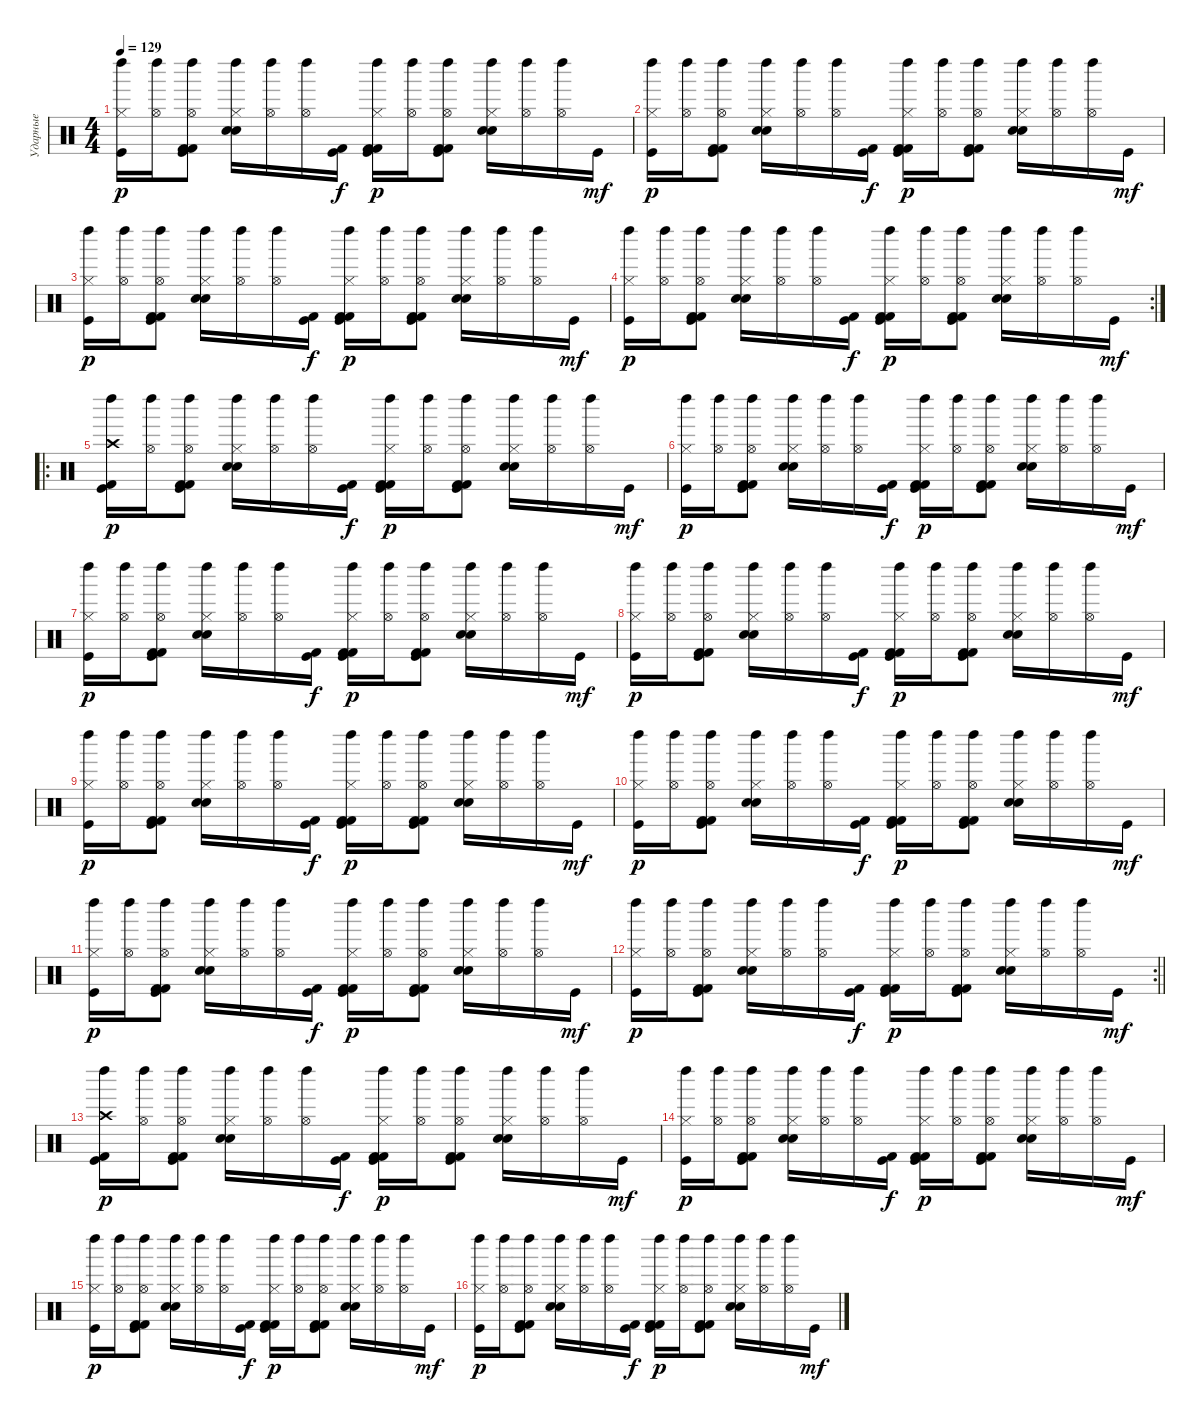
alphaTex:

\track ("Ударные" "Ударные") {instrument percussion}
\staff {score}
\articulation defaults
\ts (4 4)
\tempo 129
\clef neutral
\ks c
("Kick (hit)" "Hi-Hat (closed)" "Left Maraca (hit)").16{dy p} ("Left Maraca (hit)" "Hi-Hat (open)").16 ("Kick (hit)" "Kick (hit) 2" "Kick (hit) 2" "Left Maraca (hit)" "Hi-Hat (open)").8 ("Snare (hit) 2" "Electric Snare (hit)" "Hi-Hat (closed)" "Left Maraca (hit)").16 ("Left Maraca (hit)" "Hi-Hat (open)").16 ("Left Maraca (hit)" "Hi-Hat (open)").16 ("Kick (hit)" "Kick (hit) 2").16{dy f} ("Kick (hit)" "Kick (hit) 2" "Kick (hit) 2" "Hi-Hat (closed)" "Left Maraca (hit)").16{dy p} ("Left Maraca (hit)" "Hi-Hat (open)").16 ("Kick (hit)" "Kick (hit) 2" "Kick (hit) 2" "Left Maraca (hit)" "Hi-Hat (open)").8 ("Snare (hit) 2" "Electric Snare (hit)" "Hi-Hat (closed)" "Left Maraca (hit)").16 ("Left Maraca (hit)" "Hi-Hat (open)").16 ("Left Maraca (hit)" "Hi-Hat (open)").16 "Kick (hit)".16{dy mf} |
("Kick (hit)" "Hi-Hat (closed)" "Left Maraca (hit)").16{dy p} ("Left Maraca (hit)" "Hi-Hat (open)").16 ("Kick (hit)" "Kick (hit) 2" "Kick (hit) 2" "Left Maraca (hit)" "Hi-Hat (open)").8 ("Snare (hit) 2" "Electric Snare (hit)" "Hi-Hat (closed)" "Left Maraca (hit)").16 ("Left Maraca (hit)" "Hi-Hat (open)").16 ("Left Maraca (hit)" "Hi-Hat (open)").16 ("Kick (hit)" "Kick (hit) 2").16{dy f} ("Kick (hit)" "Kick (hit) 2" "Kick (hit) 2" "Hi-Hat (closed)" "Left Maraca (hit)").16{dy p} ("Left Maraca (hit)" "Hi-Hat (open)").16 ("Kick (hit)" "Kick (hit) 2" "Kick (hit) 2" "Left Maraca (hit)" "Hi-Hat (open)").8 ("Snare (hit) 2" "Electric Snare (hit)" "Hi-Hat (closed)" "Left Maraca (hit)").16 ("Left Maraca (hit)" "Hi-Hat (open)").16 ("Left Maraca (hit)" "Hi-Hat (open)").16 "Kick (hit)".16{dy mf} |
("Kick (hit)" "Hi-Hat (closed)" "Left Maraca (hit)").16{dy p} ("Left Maraca (hit)" "Hi-Hat (open)").16 ("Kick (hit)" "Kick (hit) 2" "Kick (hit) 2" "Left Maraca (hit)" "Hi-Hat (open)").8 ("Snare (hit) 2" "Electric Snare (hit)" "Hi-Hat (closed)" "Left Maraca (hit)").16 ("Left Maraca (hit)" "Hi-Hat (open)").16 ("Left Maraca (hit)" "Hi-Hat (open)").16 ("Kick (hit)" "Kick (hit) 2").16{dy f} ("Kick (hit)" "Kick (hit) 2" "Kick (hit) 2" "Hi-Hat (closed)" "Left Maraca (hit)").16{dy p} ("Left Maraca (hit)" "Hi-Hat (open)").16 ("Kick (hit)" "Kick (hit) 2" "Kick (hit) 2" "Left Maraca (hit)" "Hi-Hat (open)").8 ("Snare (hit) 2" "Electric Snare (hit)" "Hi-Hat (closed)" "Left Maraca (hit)").16 ("Left Maraca (hit)" "Hi-Hat (open)").16 ("Left Maraca (hit)" "Hi-Hat (open)").16 "Kick (hit)".16{dy mf} |
\rc 2
("Kick (hit)" "Hi-Hat (closed)" "Left Maraca (hit)").16{dy p} ("Left Maraca (hit)" "Hi-Hat (open)").16 ("Kick (hit)" "Kick (hit) 2" "Kick (hit) 2" "Left Maraca (hit)" "Hi-Hat (open)").8 ("Snare (hit) 2" "Electric Snare (hit)" "Hi-Hat (closed)" "Left Maraca (hit)").16 ("Left Maraca (hit)" "Hi-Hat (open)").16 ("Left Maraca (hit)" "Hi-Hat (open)").16 ("Kick (hit)" "Kick (hit) 2").16{dy f} ("Kick (hit)" "Kick (hit) 2" "Kick (hit) 2" "Hi-Hat (closed)" "Left Maraca (hit)").16{dy p} ("Left Maraca (hit)" "Hi-Hat (open)").16 ("Kick (hit)" "Kick (hit) 2" "Kick (hit) 2" "Left Maraca (hit)" "Hi-Hat (open)").8 ("Snare (hit) 2" "Electric Snare (hit)" "Hi-Hat (closed)" "Left Maraca (hit)").16 ("Left Maraca (hit)" "Hi-Hat (open)").16 ("Left Maraca (hit)" "Hi-Hat (open)").16 "Kick (hit)".16{dy mf} |
\ro
("Kick (hit)" "Kick (hit) 2" "Crash high (hit)" "Left Maraca (hit)").16{dy p} ("Left Maraca (hit)" "Hi-Hat (open)").16 ("Kick (hit)" "Kick (hit) 2" "Kick (hit) 2" "Left Maraca (hit)" "Hi-Hat (open)").8 ("Snare (hit) 2" "Electric Snare (hit)" "Hi-Hat (closed)" "Left Maraca (hit)").16 ("Left Maraca (hit)" "Hi-Hat (open)").16 ("Left Maraca (hit)" "Hi-Hat (open)").16 ("Kick (hit)" "Kick (hit) 2").16{dy f} ("Kick (hit)" "Kick (hit) 2" "Kick (hit) 2" "Hi-Hat (closed)" "Left Maraca (hit)").16{dy p} ("Left Maraca (hit)" "Hi-Hat (open)").16 ("Kick (hit)" "Kick (hit) 2" "Kick (hit) 2" "Left Maraca (hit)" "Hi-Hat (open)").8 ("Snare (hit) 2" "Electric Snare (hit)" "Hi-Hat (closed)" "Left Maraca (hit)").16 ("Left Maraca (hit)" "Hi-Hat (open)").16 ("Left Maraca (hit)" "Hi-Hat (open)").16 "Kick (hit)".16{dy mf} |
("Kick (hit)" "Hi-Hat (closed)" "Left Maraca (hit)").16{dy p} ("Left Maraca (hit)" "Hi-Hat (open)").16 ("Kick (hit)" "Kick (hit) 2" "Kick (hit) 2" "Left Maraca (hit)" "Hi-Hat (open)").8 ("Snare (hit) 2" "Electric Snare (hit)" "Hi-Hat (closed)" "Left Maraca (hit)").16 ("Left Maraca (hit)" "Hi-Hat (open)").16 ("Left Maraca (hit)" "Hi-Hat (open)").16 ("Kick (hit)" "Kick (hit) 2").16{dy f} ("Kick (hit)" "Kick (hit) 2" "Kick (hit) 2" "Hi-Hat (closed)" "Left Maraca (hit)").16{dy p} ("Left Maraca (hit)" "Hi-Hat (open)").16 ("Kick (hit)" "Kick (hit) 2" "Kick (hit) 2" "Left Maraca (hit)" "Hi-Hat (open)").8 ("Snare (hit) 2" "Electric Snare (hit)" "Hi-Hat (closed)" "Left Maraca (hit)").16 ("Left Maraca (hit)" "Hi-Hat (open)").16 ("Left Maraca (hit)" "Hi-Hat (open)").16 "Kick (hit)".16{dy mf} |
("Kick (hit)" "Hi-Hat (closed)" "Left Maraca (hit)").16{dy p} ("Left Maraca (hit)" "Hi-Hat (open)").16 ("Kick (hit)" "Kick (hit) 2" "Kick (hit) 2" "Left Maraca (hit)" "Hi-Hat (open)").8 ("Snare (hit) 2" "Electric Snare (hit)" "Hi-Hat (closed)" "Left Maraca (hit)").16 ("Left Maraca (hit)" "Hi-Hat (open)").16 ("Left Maraca (hit)" "Hi-Hat (open)").16 ("Kick (hit)" "Kick (hit) 2").16{dy f} ("Kick (hit)" "Kick (hit) 2" "Kick (hit) 2" "Hi-Hat (closed)" "Left Maraca (hit)").16{dy p} ("Left Maraca (hit)" "Hi-Hat (open)").16 ("Kick (hit)" "Kick (hit) 2" "Kick (hit) 2" "Left Maraca (hit)" "Hi-Hat (open)").8 ("Snare (hit) 2" "Electric Snare (hit)" "Hi-Hat (closed)" "Left Maraca (hit)").16 ("Left Maraca (hit)" "Hi-Hat (open)").16 ("Left Maraca (hit)" "Hi-Hat (open)").16 "Kick (hit)".16{dy mf} |
("Kick (hit)" "Hi-Hat (closed)" "Left Maraca (hit)").16{dy p} ("Left Maraca (hit)" "Hi-Hat (open)").16 ("Kick (hit)" "Kick (hit) 2" "Kick (hit) 2" "Left Maraca (hit)" "Hi-Hat (open)").8 ("Snare (hit) 2" "Electric Snare (hit)" "Hi-Hat (closed)" "Left Maraca (hit)").16 ("Left Maraca (hit)" "Hi-Hat (open)").16 ("Left Maraca (hit)" "Hi-Hat (open)").16 ("Kick (hit)" "Kick (hit) 2").16{dy f} ("Kick (hit)" "Kick (hit) 2" "Kick (hit) 2" "Hi-Hat (closed)" "Left Maraca (hit)").16{dy p} ("Left Maraca (hit)" "Hi-Hat (open)").16 ("Kick (hit)" "Kick (hit) 2" "Kick (hit) 2" "Left Maraca (hit)" "Hi-Hat (open)").8 ("Snare (hit) 2" "Electric Snare (hit)" "Hi-Hat (closed)" "Left Maraca (hit)").16 ("Left Maraca (hit)" "Hi-Hat (open)").16 ("Left Maraca (hit)" "Hi-Hat (open)").16 "Kick (hit)".16{dy mf} |
("Kick (hit)" "Hi-Hat (closed)" "Left Maraca (hit)").16{dy p} ("Left Maraca (hit)" "Hi-Hat (open)").16 ("Kick (hit)" "Kick (hit) 2" "Kick (hit) 2" "Left Maraca (hit)" "Hi-Hat (open)").8 ("Snare (hit) 2" "Electric Snare (hit)" "Hi-Hat (closed)" "Left Maraca (hit)").16 ("Left Maraca (hit)" "Hi-Hat (open)").16 ("Left Maraca (hit)" "Hi-Hat (open)").16 ("Kick (hit)" "Kick (hit) 2").16{dy f} ("Kick (hit)" "Kick (hit) 2" "Kick (hit) 2" "Hi-Hat (closed)" "Left Maraca (hit)").16{dy p} ("Left Maraca (hit)" "Hi-Hat (open)").16 ("Kick (hit)" "Kick (hit) 2" "Kick (hit) 2" "Left Maraca (hit)" "Hi-Hat (open)").8 ("Snare (hit) 2" "Electric Snare (hit)" "Hi-Hat (closed)" "Left Maraca (hit)").16 ("Left Maraca (hit)" "Hi-Hat (open)").16 ("Left Maraca (hit)" "Hi-Hat (open)").16 "Kick (hit)".16{dy mf} |
("Kick (hit)" "Hi-Hat (closed)" "Left Maraca (hit)").16{dy p} ("Left Maraca (hit)" "Hi-Hat (open)").16 ("Kick (hit)" "Kick (hit) 2" "Kick (hit) 2" "Left Maraca (hit)" "Hi-Hat (open)").8 ("Snare (hit) 2" "Electric Snare (hit)" "Hi-Hat (closed)" "Left Maraca (hit)").16 ("Left Maraca (hit)" "Hi-Hat (open)").16 ("Left Maraca (hit)" "Hi-Hat (open)").16 ("Kick (hit)" "Kick (hit) 2").16{dy f} ("Kick (hit)" "Kick (hit) 2" "Kick (hit) 2" "Hi-Hat (closed)" "Left Maraca (hit)").16{dy p} ("Left Maraca (hit)" "Hi-Hat (open)").16 ("Kick (hit)" "Kick (hit) 2" "Kick (hit) 2" "Left Maraca (hit)" "Hi-Hat (open)").8 ("Snare (hit) 2" "Electric Snare (hit)" "Hi-Hat (closed)" "Left Maraca (hit)").16 ("Left Maraca (hit)" "Hi-Hat (open)").16 ("Left Maraca (hit)" "Hi-Hat (open)").16 "Kick (hit)".16{dy mf} |
("Kick (hit)" "Hi-Hat (closed)" "Left Maraca (hit)").16{dy p} ("Left Maraca (hit)" "Hi-Hat (open)").16 ("Kick (hit)" "Kick (hit) 2" "Kick (hit) 2" "Left Maraca (hit)" "Hi-Hat (open)").8 ("Snare (hit) 2" "Electric Snare (hit)" "Hi-Hat (closed)" "Left Maraca (hit)").16 ("Left Maraca (hit)" "Hi-Hat (open)").16 ("Left Maraca (hit)" "Hi-Hat (open)").16 ("Kick (hit)" "Kick (hit) 2").16{dy f} ("Kick (hit)" "Kick (hit) 2" "Kick (hit) 2" "Hi-Hat (closed)" "Left Maraca (hit)").16{dy p} ("Left Maraca (hit)" "Hi-Hat (open)").16 ("Kick (hit)" "Kick (hit) 2" "Kick (hit) 2" "Left Maraca (hit)" "Hi-Hat (open)").8 ("Snare (hit) 2" "Electric Snare (hit)" "Hi-Hat (closed)" "Left Maraca (hit)").16 ("Left Maraca (hit)" "Hi-Hat (open)").16 ("Left Maraca (hit)" "Hi-Hat (open)").16 "Kick (hit)".16{dy mf} |
\rc 2
\barLineRight lightlight
("Kick (hit)" "Hi-Hat (closed)" "Left Maraca (hit)").16{dy p} ("Left Maraca (hit)" "Hi-Hat (open)").16 ("Kick (hit)" "Kick (hit) 2" "Kick (hit) 2" "Left Maraca (hit)" "Hi-Hat (open)").8 ("Snare (hit) 2" "Electric Snare (hit)" "Hi-Hat (closed)" "Left Maraca (hit)").16 ("Left Maraca (hit)" "Hi-Hat (open)").16 ("Left Maraca (hit)" "Hi-Hat (open)").16 ("Kick (hit)" "Kick (hit) 2").16{dy f} ("Kick (hit)" "Kick (hit) 2" "Kick (hit) 2" "Hi-Hat (closed)" "Left Maraca (hit)").16{dy p} ("Left Maraca (hit)" "Hi-Hat (open)").16 ("Kick (hit)" "Kick (hit) 2" "Kick (hit) 2" "Left Maraca (hit)" "Hi-Hat (open)").8 ("Snare (hit) 2" "Electric Snare (hit)" "Hi-Hat (closed)" "Left Maraca (hit)").16 ("Left Maraca (hit)" "Hi-Hat (open)").16 ("Left Maraca (hit)" "Hi-Hat (open)").16 "Kick (hit)".16{dy mf} |
("Kick (hit)" "Kick (hit) 2" "Crash high (hit)" "Left Maraca (hit)").16{dy p} ("Left Maraca (hit)" "Hi-Hat (open)").16 ("Kick (hit)" "Kick (hit) 2" "Kick (hit) 2" "Left Maraca (hit)" "Hi-Hat (open)").8 ("Snare (hit) 2" "Electric Snare (hit)" "Hi-Hat (closed)" "Left Maraca (hit)").16 ("Left Maraca (hit)" "Hi-Hat (open)").16 ("Left Maraca (hit)" "Hi-Hat (open)").16 ("Kick (hit)" "Kick (hit) 2").16{dy f} ("Kick (hit)" "Kick (hit) 2" "Kick (hit) 2" "Hi-Hat (closed)" "Left Maraca (hit)").16{dy p} ("Left Maraca (hit)" "Hi-Hat (open)").16 ("Kick (hit)" "Kick (hit) 2" "Kick (hit) 2" "Left Maraca (hit)" "Hi-Hat (open)").8 ("Snare (hit) 2" "Electric Snare (hit)" "Hi-Hat (closed)" "Left Maraca (hit)").16 ("Left Maraca (hit)" "Hi-Hat (open)").16 ("Left Maraca (hit)" "Hi-Hat (open)").16 "Kick (hit)".16{dy mf} |
("Kick (hit)" "Hi-Hat (closed)" "Left Maraca (hit)").16{dy p} ("Left Maraca (hit)" "Hi-Hat (open)").16 ("Kick (hit)" "Kick (hit) 2" "Kick (hit) 2" "Left Maraca (hit)" "Hi-Hat (open)").8 ("Snare (hit) 2" "Electric Snare (hit)" "Hi-Hat (closed)" "Left Maraca (hit)").16 ("Left Maraca (hit)" "Hi-Hat (open)").16 ("Left Maraca (hit)" "Hi-Hat (open)").16 ("Kick (hit)" "Kick (hit) 2").16{dy f} ("Kick (hit)" "Kick (hit) 2" "Kick (hit) 2" "Hi-Hat (closed)" "Left Maraca (hit)").16{dy p} ("Left Maraca (hit)" "Hi-Hat (open)").16 ("Kick (hit)" "Kick (hit) 2" "Kick (hit) 2" "Left Maraca (hit)" "Hi-Hat (open)").8 ("Snare (hit) 2" "Electric Snare (hit)" "Hi-Hat (closed)" "Left Maraca (hit)").16 ("Left Maraca (hit)" "Hi-Hat (open)").16 ("Left Maraca (hit)" "Hi-Hat (open)").16 "Kick (hit)".16{dy mf} |
("Kick (hit)" "Hi-Hat (closed)" "Left Maraca (hit)").16{dy p} ("Left Maraca (hit)" "Hi-Hat (open)").16 ("Kick (hit)" "Kick (hit) 2" "Kick (hit) 2" "Left Maraca (hit)" "Hi-Hat (open)").8 ("Snare (hit) 2" "Electric Snare (hit)" "Hi-Hat (closed)" "Left Maraca (hit)").16 ("Left Maraca (hit)" "Hi-Hat (open)").16 ("Left Maraca (hit)" "Hi-Hat (open)").16 ("Kick (hit)" "Kick (hit) 2").16{dy f} ("Kick (hit)" "Kick (hit) 2" "Kick (hit) 2" "Hi-Hat (closed)" "Left Maraca (hit)").16{dy p} ("Left Maraca (hit)" "Hi-Hat (open)").16 ("Kick (hit)" "Kick (hit) 2" "Kick (hit) 2" "Left Maraca (hit)" "Hi-Hat (open)").8 ("Snare (hit) 2" "Electric Snare (hit)" "Hi-Hat (closed)" "Left Maraca (hit)").16 ("Left Maraca (hit)" "Hi-Hat (open)").16 ("Left Maraca (hit)" "Hi-Hat (open)").16 "Kick (hit)".16{dy mf} |
("Kick (hit)" "Hi-Hat (closed)" "Left Maraca (hit)").16{dy p} ("Left Maraca (hit)" "Hi-Hat (open)").16 ("Kick (hit)" "Kick (hit) 2" "Kick (hit) 2" "Left Maraca (hit)" "Hi-Hat (open)").8 ("Snare (hit) 2" "Electric Snare (hit)" "Hi-Hat (closed)" "Left Maraca (hit)").16 ("Left Maraca (hit)" "Hi-Hat (open)").16 ("Left Maraca (hit)" "Hi-Hat (open)").16 ("Kick (hit)" "Kick (hit) 2").16{dy f} ("Kick (hit)" "Kick (hit) 2" "Kick (hit) 2" "Hi-Hat (closed)" "Left Maraca (hit)").16{dy p} ("Left Maraca (hit)" "Hi-Hat (open)").16 ("Kick (hit)" "Kick (hit) 2" "Kick (hit) 2" "Left Maraca (hit)" "Hi-Hat (open)").8 ("Snare (hit) 2" "Electric Snare (hit)" "Hi-Hat (closed)" "Left Maraca (hit)").16 ("Left Maraca (hit)" "Hi-Hat (open)").16 ("Left Maraca (hit)" "Hi-Hat (open)").16 "Kick (hit)".16{dy mf}
